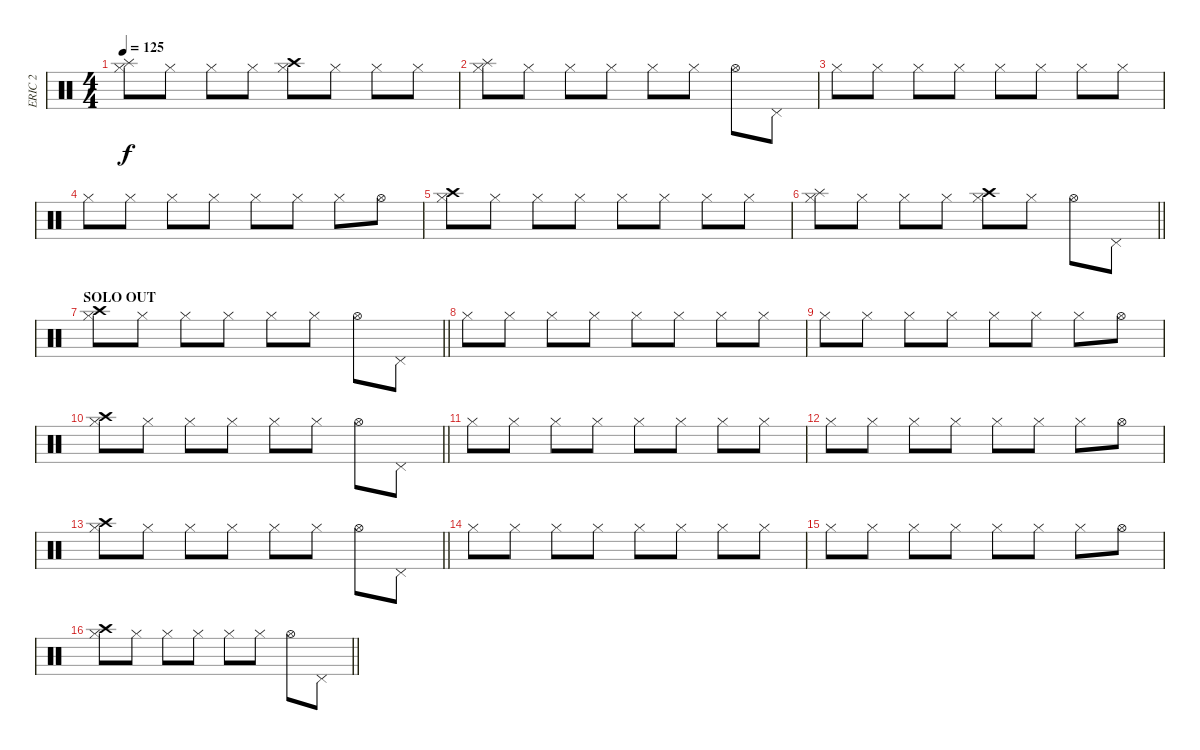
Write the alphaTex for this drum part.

\track ("ERIC 2" "ERIC 2") {instrument percussion}
\staff {score}
\articulation defaults
\ts (4 4)
\tempo 125
\clef neutral
\ks c
("Splash (hit)" "Hi-Hat (closed)").8{dy f} "Hi-Hat (closed)".8 "Hi-Hat (closed)".8 "Hi-Hat (closed)".8 ("Crash high (hit)" "Hi-Hat (closed)").8 "Hi-Hat (closed)".8 "Hi-Hat (closed)".8 "Hi-Hat (closed)".8 |
("Splash (hit)" "Hi-Hat (closed)").8 "Hi-Hat (closed)".8 "Hi-Hat (closed)".8 "Hi-Hat (closed)".8 "Hi-Hat (closed)".8 "Hi-Hat (closed)".8 "Hi-Hat (open)".8 "Pedal Hi-Hat (hit)".8 |
"Hi-Hat (closed)".8 "Hi-Hat (closed)".8 "Hi-Hat (closed)".8 "Hi-Hat (closed)".8 "Hi-Hat (closed)".8 "Hi-Hat (closed)".8 "Hi-Hat (closed)".8 "Hi-Hat (closed)".8 |
"Hi-Hat (closed)".8 "Hi-Hat (closed)".8 "Hi-Hat (closed)".8 "Hi-Hat (closed)".8 "Hi-Hat (closed)".8 "Hi-Hat (closed)".8 "Hi-Hat (closed)".8 "Hi-Hat (open)".8 |
("Crash high (hit)" "Hi-Hat (closed)").8 "Hi-Hat (closed)".8 "Hi-Hat (closed)".8 "Hi-Hat (closed)".8 "Hi-Hat (closed)".8 "Hi-Hat (closed)".8 "Hi-Hat (closed)".8 "Hi-Hat (closed)".8 |
\barLineRight lightlight
("Splash (hit)" "Hi-Hat (closed)").8 "Hi-Hat (closed)".8 "Hi-Hat (closed)".8 "Hi-Hat (closed)".8 ("Crash high (hit)" "Hi-Hat (closed)").8 "Hi-Hat (closed)".8 "Hi-Hat (open)".8 "Pedal Hi-Hat (hit)".8 |
\section ("" "SOLO OUT")
\barLineRight lightlight
("Crash high (hit)" "Hi-Hat (closed)").8 "Hi-Hat (closed)".8 "Hi-Hat (closed)".8 "Hi-Hat (closed)".8 "Hi-Hat (closed)".8 "Hi-Hat (closed)".8 "Hi-Hat (open)".8 "Pedal Hi-Hat (hit)".8 |
"Hi-Hat (closed)".8 "Hi-Hat (closed)".8 "Hi-Hat (closed)".8 "Hi-Hat (closed)".8 "Hi-Hat (closed)".8 "Hi-Hat (closed)".8 "Hi-Hat (closed)".8 "Hi-Hat (closed)".8 |
"Hi-Hat (closed)".8 "Hi-Hat (closed)".8 "Hi-Hat (closed)".8 "Hi-Hat (closed)".8 "Hi-Hat (closed)".8 "Hi-Hat (closed)".8 "Hi-Hat (closed)".8 "Hi-Hat (open)".8 |
\barLineRight lightlight
("Crash high (hit)" "Hi-Hat (closed)").8 "Hi-Hat (closed)".8 "Hi-Hat (closed)".8 "Hi-Hat (closed)".8 "Hi-Hat (closed)".8 "Hi-Hat (closed)".8 "Hi-Hat (open)".8 "Pedal Hi-Hat (hit)".8 |
"Hi-Hat (closed)".8 "Hi-Hat (closed)".8 "Hi-Hat (closed)".8 "Hi-Hat (closed)".8 "Hi-Hat (closed)".8 "Hi-Hat (closed)".8 "Hi-Hat (closed)".8 "Hi-Hat (closed)".8 |
"Hi-Hat (closed)".8 "Hi-Hat (closed)".8 "Hi-Hat (closed)".8 "Hi-Hat (closed)".8 "Hi-Hat (closed)".8 "Hi-Hat (closed)".8 "Hi-Hat (closed)".8 "Hi-Hat (open)".8 |
\barLineRight lightlight
("Crash high (hit)" "Hi-Hat (closed)").8 "Hi-Hat (closed)".8 "Hi-Hat (closed)".8 "Hi-Hat (closed)".8 "Hi-Hat (closed)".8 "Hi-Hat (closed)".8 "Hi-Hat (open)".8 "Pedal Hi-Hat (hit)".8 |
"Hi-Hat (closed)".8 "Hi-Hat (closed)".8 "Hi-Hat (closed)".8 "Hi-Hat (closed)".8 "Hi-Hat (closed)".8 "Hi-Hat (closed)".8 "Hi-Hat (closed)".8 "Hi-Hat (closed)".8 |
"Hi-Hat (closed)".8 "Hi-Hat (closed)".8 "Hi-Hat (closed)".8 "Hi-Hat (closed)".8 "Hi-Hat (closed)".8 "Hi-Hat (closed)".8 "Hi-Hat (closed)".8 "Hi-Hat (open)".8 |
\barLineRight lightlight
("Crash high (hit)" "Hi-Hat (closed)").8 "Hi-Hat (closed)".8 "Hi-Hat (closed)".8 "Hi-Hat (closed)".8 "Hi-Hat (closed)".8 "Hi-Hat (closed)".8 "Hi-Hat (open)".8 "Pedal Hi-Hat (hit)".8
